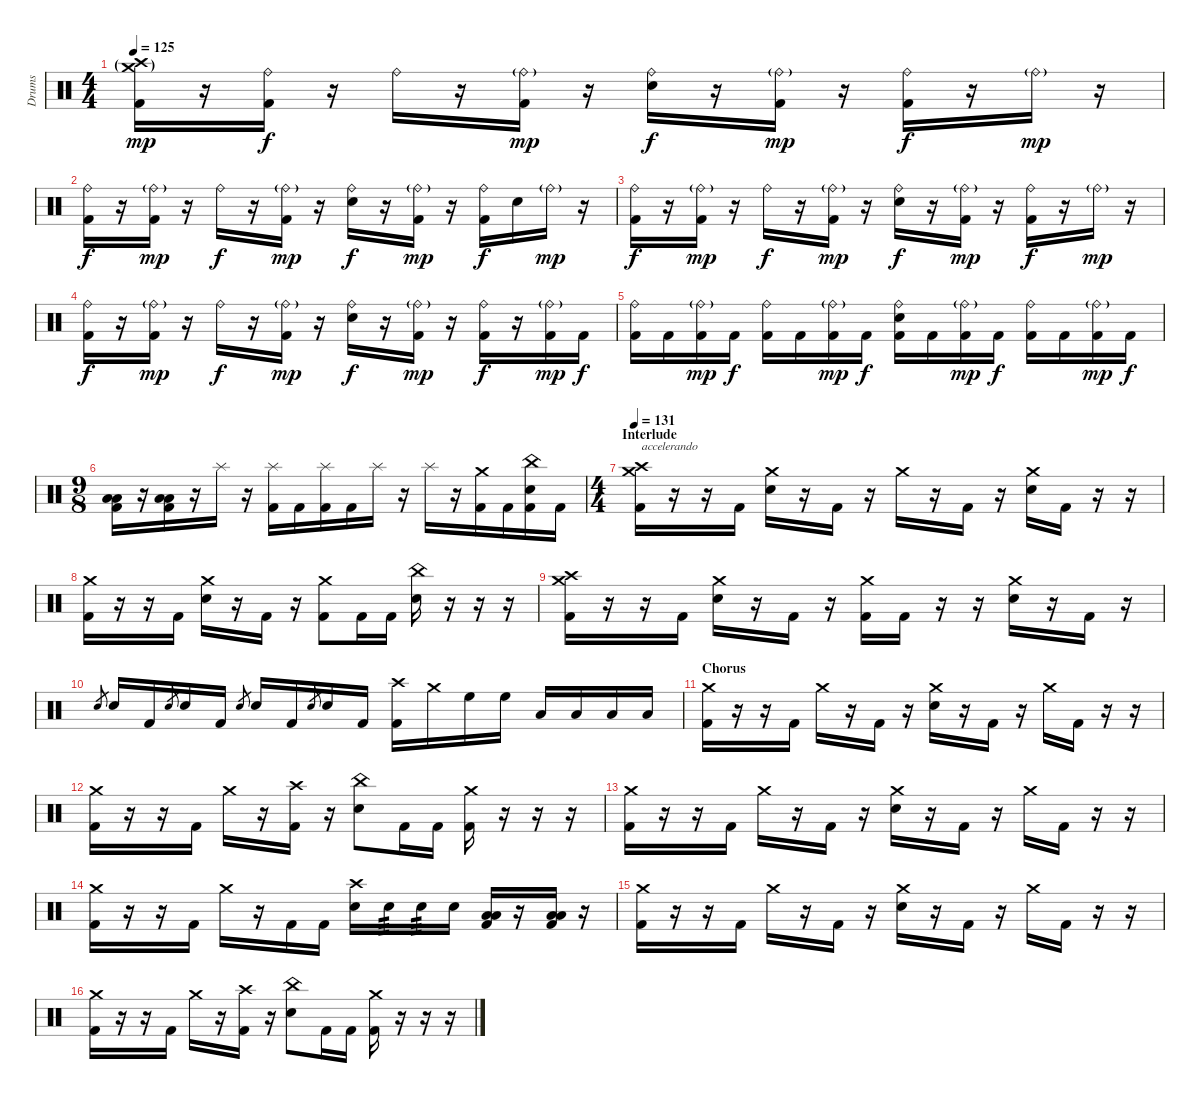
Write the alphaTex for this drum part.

\track ("Drums" "Drums") {instrument percussion}
\staff {score}
\articulation defaults
\ts (4 4)
\tempo 125
\clef neutral
\ks c
("Crash high (hit)"{g} "Crash medium (hit)"{g} "Kick (hit) 2").16{dy mp} r.16 ("Ride (bell)" "Kick (hit) 2").16{dy f} r.16 "Ride (bell)".16 r.16 ("Ride (bell)"{g} "Kick (hit) 2").16{dy mp} r.16 ("Ride (bell)" "Electric Snare (hit)").16{dy f} r.16 ("Ride (bell)"{g} "Kick (hit) 2").16{dy mp} r.16 ("Ride (bell)" "Kick (hit) 2").16{dy f} r.16 "Ride (bell)"{g}.16{dy mp} r.16 |
("Ride (bell)" "Kick (hit) 2").16{dy f} r.16 ("Ride (bell)"{g} "Kick (hit) 2").16{dy mp} r.16 "Ride (bell)".16{dy f} r.16 ("Ride (bell)"{g} "Kick (hit) 2").16{dy mp} r.16 ("Ride (bell)" "Electric Snare (hit)").16{dy f} r.16 ("Ride (bell)"{g} "Kick (hit) 2").16{dy mp} r.16 ("Ride (bell)" "Kick (hit) 2").16{dy f} "Electric Snare (hit)".16 "Ride (bell)"{g}.16{dy mp} r.16 |
("Ride (bell)" "Kick (hit) 2").16{dy f} r.16 ("Ride (bell)"{g} "Kick (hit) 2").16{dy mp} r.16 "Ride (bell)".16{dy f} r.16 ("Ride (bell)"{g} "Kick (hit) 2").16{dy mp} r.16 ("Ride (bell)" "Electric Snare (hit)").16{dy f} r.16 ("Ride (bell)"{g} "Kick (hit) 2").16{dy mp} r.16 ("Ride (bell)" "Kick (hit) 2").16{dy f} r.16 "Ride (bell)"{g}.16{dy mp} r.16 |
("Ride (bell)" "Kick (hit) 2").16{dy f} r.16 ("Ride (bell)"{g} "Kick (hit) 2").16{dy mp} r.16 "Ride (bell)".16{dy f} r.16 ("Ride (bell)"{g} "Kick (hit) 2").16{dy mp} r.16 ("Ride (bell)" "Electric Snare (hit)").16{dy f} r.16 ("Ride (bell)"{g} "Kick (hit) 2").16{dy mp} r.16 ("Ride (bell)" "Kick (hit) 2").16{dy f} r.16 ("Ride (bell)"{g} "Kick (hit) 2").16{dy mp} "Kick (hit) 2".16{dy f} |
("Ride (bell)" "Kick (hit) 2").16 "Kick (hit) 2".16 ("Ride (bell)"{g} "Kick (hit) 2").16{dy mp} "Kick (hit) 2".16{dy f} ("Ride (bell)" "Kick (hit) 2").16 "Kick (hit) 2".16 ("Ride (bell)"{g} "Kick (hit) 2").16{dy mp} "Kick (hit) 2".16{dy f} ("Ride (bell)" "Electric Snare (hit)" "Kick (hit) 2").16 "Kick (hit) 2".16 ("Ride (bell)"{g} "Kick (hit) 2").16{dy mp} "Kick (hit) 2".16{dy f} ("Ride (bell)" "Kick (hit) 2").16 "Kick (hit) 2".16 ("Ride (bell)"{g} "Kick (hit) 2").16{dy mp} "Kick (hit) 2".16{dy f} |
\ts (9 8)
("Low Tom (hit)" "Low Floor Tom (hit)" "Kick (hit) 2").16 r.16 ("Low Tom (hit)" "Low Floor Tom (hit)" "Kick (hit) 2").16 r.16 "Splash (hit)".16 r.16 ("Splash (hit)" "Kick (hit) 2").16 "Kick (hit) 2".16 ("Splash (hit)" "Kick (hit) 2").16 "Kick (hit) 2".16 "Splash (hit)".16 r.16 "Splash (hit)".16 r.16 ("Crash medium (hit)" "Kick (hit) 2").16 "Kick (hit) 2".16 ("China (hit)" "Electric Snare (hit)" "Kick (hit) 2").16 "Kick (hit) 2".16 |
\ts (4 4)
\section ("" "Interlude")
\tempo 131
("Crash medium (hit)" "Crash high (hit)" "Kick (hit) 2").16{txt "accelerando"} r.16 r.16 "Kick (hit) 2".16 ("Crash medium (hit)" "Electric Snare (hit)").16 r.16 "Kick (hit) 2".16 r.16 "Crash medium (hit)".16 r.16 "Kick (hit) 2".16 r.16 ("Crash medium (hit)" "Electric Snare (hit)").16 "Kick (hit) 2".16 r.16 r.16 |
("Crash medium (hit)" "Kick (hit) 2").16 r.16 r.16 "Kick (hit) 2".16 ("Crash medium (hit)" "Electric Snare (hit)").16 r.16 "Kick (hit) 2".16 r.16 ("Crash medium (hit)" "Kick (hit) 2").8 "Kick (hit) 2".16 "Kick (hit) 2".16 ("China (hit)" "Electric Snare (hit)").16 r.16 r.16 r.16 |
("Crash medium (hit)" "Crash high (hit)" "Kick (hit) 2").16 r.16 r.16 "Kick (hit) 2".16 ("Crash medium (hit)" "Electric Snare (hit)").16 r.16 "Kick (hit) 2".16 r.16 ("Crash medium (hit)" "Kick (hit) 2").16 "Kick (hit) 2".16 r.16 r.16 ("Crash medium (hit)" "Electric Snare (hit)").16 r.16 "Kick (hit) 2".16 r.16 |
"Electric Snare (hit)".8{gr} "Electric Snare (hit)".16 "Kick (hit) 2".16 "Electric Snare (hit)".8{gr} "Electric Snare (hit)".16 "Kick (hit) 2".16 "Electric Snare (hit)".8{gr} "Electric Snare (hit)".16 "Kick (hit) 2".16 "Electric Snare (hit)".8{gr} "Electric Snare (hit)".16 "Kick (hit) 2".16 ("Crash high (hit)" "Kick (hit) 2").16 "Crash medium (hit)".16 "High Floor Tom (hit)".16 "High Floor Tom (hit)".16 "Low Tom (hit)".16 "Low Tom (hit)".16 "Low Floor Tom (hit)".16 "Low Floor Tom (hit)".16 |
\section ("" "Chorus")
("Crash medium (hit)" "Kick (hit) 2").16 r.16 r.16 "Kick (hit) 2".16 "Crash medium (hit)".16 r.16 "Kick (hit) 2".16 r.16 ("Crash medium (hit)" "Electric Snare (hit)").16 r.16 "Kick (hit) 2".16 r.16 "Crash medium (hit)".16 "Kick (hit) 2".16 r.16 r.16 |
("Crash medium (hit)" "Kick (hit) 2").16 r.16 r.16 "Kick (hit) 2".16 "Crash medium (hit)".16 r.16 ("Crash high (hit)" "Kick (hit) 2").16 r.16 ("China (hit)" "Electric Snare (hit)").8 "Kick (hit) 2".16 "Kick (hit) 2".16 ("Crash medium (hit)" "Kick (hit) 2").16 r.16 r.16 r.16 |
("Crash medium (hit)" "Kick (hit) 2").16 r.16 r.16 "Kick (hit) 2".16 "Crash medium (hit)".16 r.16 "Kick (hit) 2".16 r.16 ("Crash medium (hit)" "Electric Snare (hit)").16 r.16 "Kick (hit) 2".16 r.16 "Crash medium (hit)".16 "Kick (hit) 2".16 r.16 r.16 |
("Crash medium (hit)" "Kick (hit) 2").16 r.16 r.16 "Kick (hit) 2".16 "Crash medium (hit)".16 r.16 "Kick (hit) 2".16 "Kick (hit) 2".16 ("Crash high (hit)" "Electric Snare (hit)").16 "Electric Snare (hit)".16{tp 3} "Electric Snare (hit)".16{tp 3} "Electric Snare (hit)".16 ("Low Tom (hit)" "Low Floor Tom (hit)" "Kick (hit) 2").16 r.16 ("Low Tom (hit)" "Low Floor Tom (hit)" "Kick (hit) 2").16 r.16 |
("Crash medium (hit)" "Kick (hit) 2").16 r.16 r.16 "Kick (hit) 2".16 "Crash medium (hit)".16 r.16 "Kick (hit) 2".16 r.16 ("Crash medium (hit)" "Electric Snare (hit)").16 r.16 "Kick (hit) 2".16 r.16 "Crash medium (hit)".16 "Kick (hit) 2".16 r.16 r.16 |
("Crash medium (hit)" "Kick (hit) 2").16 r.16 r.16 "Kick (hit) 2".16 "Crash medium (hit)".16 r.16 ("Crash high (hit)" "Kick (hit) 2").16 r.16 ("China (hit)" "Electric Snare (hit)").8 "Kick (hit) 2".16 "Kick (hit) 2".16 ("Crash medium (hit)" "Kick (hit) 2").16 r.16 r.16 r.16
